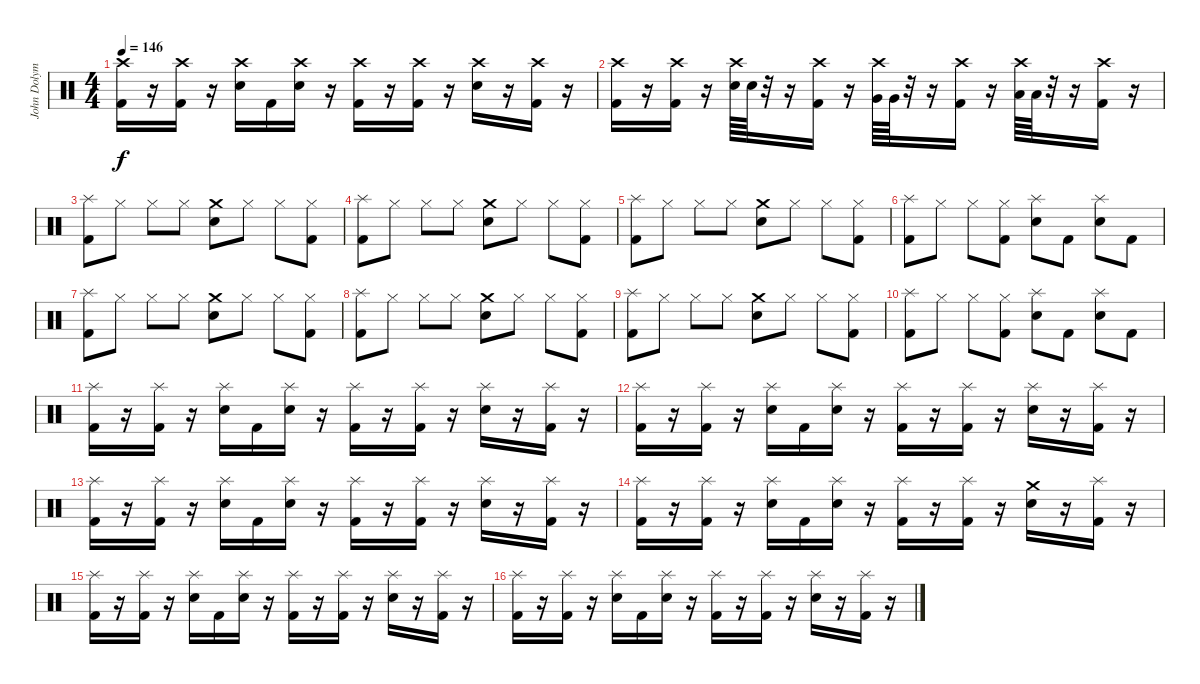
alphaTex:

\track ("John Dolyman" "John Dolym") {instrument percussion}
\staff {score}
\articulation defaults
\ts (4 4)
\tempo 146
\clef neutral
\ks c
("Crash high (hit)" "Kick (hit) 2").16{dy f} r.16 ("Crash high (hit)" "Kick (hit) 2").16 r.16 ("Crash high (hit)" "Electric Snare (hit)").16 "Kick (hit) 2".16 ("Crash high (hit)" "Electric Snare (hit)").16 r.16 ("Crash high (hit)" "Kick (hit) 2").16 r.16 ("Crash high (hit)" "Kick (hit) 2").16 r.16 ("Crash high (hit)" "Electric Snare (hit)").16 r.16 ("Crash high (hit)" "Kick (hit) 2").16 r.16 |
("Crash high (hit)" "Kick (hit) 2").16 r.16 ("Crash high (hit)" "Kick (hit) 2").16 r.16 ("Crash high (hit)" "Electric Snare (hit)").64 "Electric Snare (hit)".64 r.32 r.16 ("Crash high (hit)" "Kick (hit) 2").16 r.16 ("Crash high (hit)" "Very Low Tom (hit)").64 "Very Low Tom (hit)".64 r.32 r.16 ("Crash high (hit)" "Kick (hit) 2").16 r.16 ("Crash high (hit)" "Low Floor Tom (hit)").64 "Low Floor Tom (hit)".64 r.32 r.16 ("Crash high (hit)" "Kick (hit) 2").16 r.16 |
("Splash (hit)" "Kick (hit) 2").8 "Hi-Hat (closed)".8 "Hi-Hat (closed)".8 "Hi-Hat (closed)".8 ("Crash medium (hit)" "Electric Snare (hit)").8 "Hi-Hat (closed)".8 "Hi-Hat (closed)".8 ("Hi-Hat (closed)" "Kick (hit) 2").8 |
("Splash (hit)" "Kick (hit) 2").8 "Hi-Hat (closed)".8 "Hi-Hat (closed)".8 "Hi-Hat (closed)".8 ("Crash medium (hit)" "Electric Snare (hit)").8 "Hi-Hat (closed)".8 "Hi-Hat (closed)".8 ("Hi-Hat (closed)" "Kick (hit) 2").8 |
("Splash (hit)" "Kick (hit) 2").8 "Hi-Hat (closed)".8 "Hi-Hat (closed)".8 "Hi-Hat (closed)".8 ("Crash medium (hit)" "Electric Snare (hit)").8 "Hi-Hat (closed)".8 "Hi-Hat (closed)".8 ("Hi-Hat (closed)" "Kick (hit) 2").8 |
("Splash (hit)" "Kick (hit) 2").8 "Hi-Hat (closed)".8 "Hi-Hat (closed)".8 ("Hi-Hat (closed)" "Kick (hit) 2").8 ("Splash (hit)" "Electric Snare (hit)").8 "Kick (hit) 2".8 ("Splash (hit)" "Electric Snare (hit)").8 "Kick (hit) 2".8 |
("Splash (hit)" "Kick (hit) 2").8 "Hi-Hat (closed)".8 "Hi-Hat (closed)".8 "Hi-Hat (closed)".8 ("Crash medium (hit)" "Electric Snare (hit)").8 "Hi-Hat (closed)".8 "Hi-Hat (closed)".8 ("Hi-Hat (closed)" "Kick (hit) 2").8 |
("Splash (hit)" "Kick (hit) 2").8 "Hi-Hat (closed)".8 "Hi-Hat (closed)".8 "Hi-Hat (closed)".8 ("Crash medium (hit)" "Electric Snare (hit)").8 "Hi-Hat (closed)".8 "Hi-Hat (closed)".8 ("Hi-Hat (closed)" "Kick (hit) 2").8 |
("Splash (hit)" "Kick (hit) 2").8 "Hi-Hat (closed)".8 "Hi-Hat (closed)".8 "Hi-Hat (closed)".8 ("Crash medium (hit)" "Electric Snare (hit)").8 "Hi-Hat (closed)".8 "Hi-Hat (closed)".8 ("Hi-Hat (closed)" "Kick (hit) 2").8 |
("Splash (hit)" "Kick (hit) 2").8 "Hi-Hat (closed)".8 "Hi-Hat (closed)".8 ("Hi-Hat (closed)" "Kick (hit) 2").8 ("Splash (hit)" "Electric Snare (hit)").8 "Kick (hit) 2".8 ("Splash (hit)" "Electric Snare (hit)").8 "Kick (hit) 2".8 |
("Splash (hit)" "Kick (hit) 2").16 r.16 ("Splash (hit)" "Kick (hit) 2").16 r.16 ("Splash (hit)" "Electric Snare (hit)").16 "Kick (hit) 2".16 ("Splash (hit)" "Electric Snare (hit)").16 r.16 ("Splash (hit)" "Kick (hit) 2").16 r.16 ("Splash (hit)" "Kick (hit) 2").16 r.16 ("Splash (hit)" "Electric Snare (hit)").16 r.16 ("Splash (hit)" "Kick (hit) 2").16 r.16 |
("Splash (hit)" "Kick (hit) 2").16 r.16 ("Splash (hit)" "Kick (hit) 2").16 r.16 ("Splash (hit)" "Electric Snare (hit)").16 "Kick (hit) 2".16 ("Splash (hit)" "Electric Snare (hit)").16 r.16 ("Splash (hit)" "Kick (hit) 2").16 r.16 ("Splash (hit)" "Kick (hit) 2").16 r.16 ("Splash (hit)" "Electric Snare (hit)").16 r.16 ("Splash (hit)" "Kick (hit) 2").16 r.16 |
("Splash (hit)" "Kick (hit) 2").16 r.16 ("Splash (hit)" "Kick (hit) 2").16 r.16 ("Splash (hit)" "Electric Snare (hit)").16 "Kick (hit) 2".16 ("Splash (hit)" "Electric Snare (hit)").16 r.16 ("Splash (hit)" "Kick (hit) 2").16 r.16 ("Splash (hit)" "Kick (hit) 2").16 r.16 ("Splash (hit)" "Electric Snare (hit)").16 r.16 ("Splash (hit)" "Kick (hit) 2").16 r.16 |
("Splash (hit)" "Kick (hit) 2").16 r.16 ("Splash (hit)" "Kick (hit) 2").16 r.16 ("Splash (hit)" "Electric Snare (hit)").16 "Kick (hit) 2".16 ("Splash (hit)" "Electric Snare (hit)").16 r.16 ("Splash (hit)" "Kick (hit) 2").16 r.16 ("Splash (hit)" "Kick (hit) 2").16 r.16 ("Crash medium (hit)" "Electric Snare (hit)").16 r.16 ("Splash (hit)" "Kick (hit) 2").16 r.16 |
("Splash (hit)" "Kick (hit) 2").16 r.16 ("Splash (hit)" "Kick (hit) 2").16 r.16 ("Splash (hit)" "Electric Snare (hit)").16 "Kick (hit) 2".16 ("Splash (hit)" "Electric Snare (hit)").16 r.16 ("Splash (hit)" "Kick (hit) 2").16 r.16 ("Splash (hit)" "Kick (hit) 2").16 r.16 ("Splash (hit)" "Electric Snare (hit)").16 r.16 ("Splash (hit)" "Kick (hit) 2").16 r.16 |
("Splash (hit)" "Kick (hit) 2").16 r.16 ("Splash (hit)" "Kick (hit) 2").16 r.16 ("Splash (hit)" "Electric Snare (hit)").16 "Kick (hit) 2".16 ("Splash (hit)" "Electric Snare (hit)").16 r.16 ("Splash (hit)" "Kick (hit) 2").16 r.16 ("Splash (hit)" "Kick (hit) 2").16 r.16 ("Splash (hit)" "Electric Snare (hit)").16 r.16 ("Splash (hit)" "Kick (hit) 2").16 r.16
